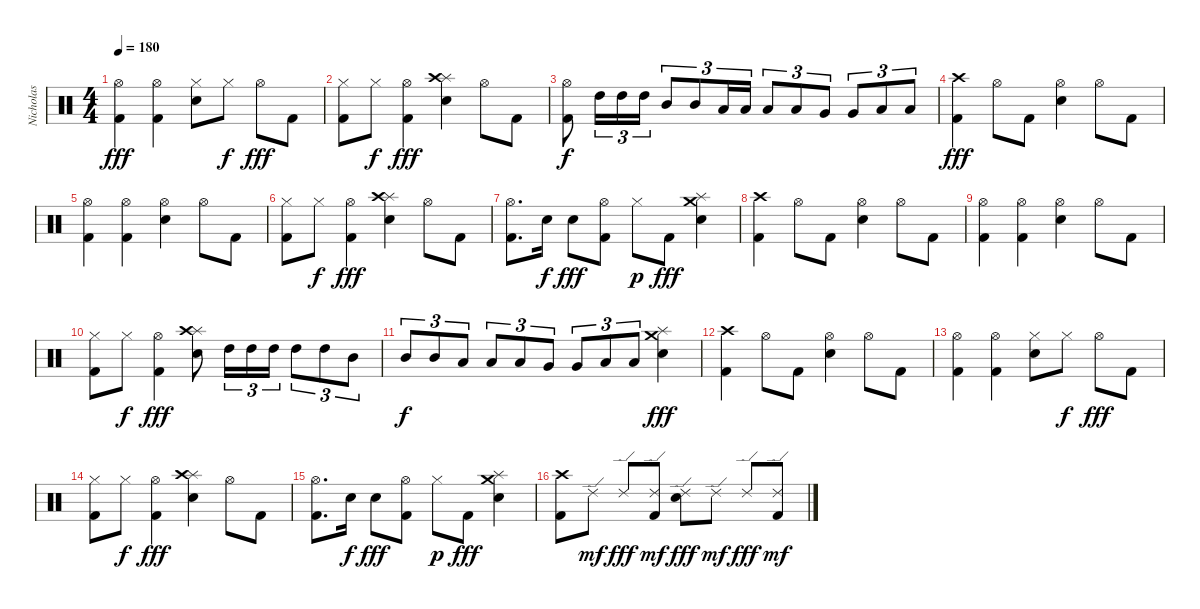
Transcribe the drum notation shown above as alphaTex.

\track ("Nicholas" "Nicholas") {instrument percussion}
\staff {score}
\articulation defaults
\ts (4 4)
\tempo 180
\clef neutral
\ks c
("Kick (hit) 2" "Hi-Hat (open)").4{dy fff} ("Kick (hit) 2" "Hi-Hat (open)").4 ("Electric Snare (hit)" "Hi-Hat (closed)").8 "Hi-Hat (closed)".8{dy f} "Hi-Hat (open)".8{dy fff} "Kick (hit) 2".8 |
("Kick (hit) 2" "Hi-Hat (closed)").8 "Hi-Hat (closed)".8{dy f} ("Kick (hit) 2" "Hi-Hat (open)").4{dy fff} ("Electric Snare (hit)" "Splash (hit)" "Crash high (hit)").4 "Hi-Hat (open)".8 "Kick (hit) 2".8 |
("Kick (hit) 2" "Hi-Hat (open)").8{dy f} "High Tom (hit)".16{tu (3 2)} "High Tom (hit)".16{tu (3 2)} "High Tom (hit)".16{tu (3 2)} "Mid Tom (hit)".8{tu (3 2)} "Mid Tom (hit)".8{tu (3 2)} "Low Tom (hit)".16{tu (3 2)} "Low Tom (hit)".16{tu (3 2)} "Low Tom (hit)".8{tu (3 2)} "Low Tom (hit)".8{tu (3 2)} "Very Low Tom (hit)".8{tu (3 2)} "Very Low Tom (hit)".8{tu (3 2)} "Low Floor Tom (hit)".8{tu (3 2)} "Low Floor Tom (hit)".8{tu (3 2)} |
("Kick (hit) 2" "Crash high (hit)").4{dy fff} "Hi-Hat (open)".8 "Kick (hit) 2".8 ("Electric Snare (hit)" "Hi-Hat (open)").4 "Hi-Hat (open)".8 "Kick (hit) 2".8 |
("Kick (hit) 2" "Hi-Hat (open)").4 ("Kick (hit) 2" "Hi-Hat (open)").4 ("Electric Snare (hit)" "Hi-Hat (open)").4 "Hi-Hat (open)".8 "Kick (hit) 2".8 |
("Kick (hit) 2" "Hi-Hat (closed)").8 "Hi-Hat (closed)".8{dy f} ("Kick (hit) 2" "Hi-Hat (open)").4{dy fff} ("Electric Snare (hit)" "Splash (hit)" "Crash high (hit)").4 "Hi-Hat (open)".8 "Kick (hit) 2".8 |
("Kick (hit) 2" "Hi-Hat (open)").8{d} "Electric Snare (hit)".16{dy f} "Electric Snare (hit)".8{dy fff} ("Kick (hit) 2" "Hi-Hat (open)").8 "Hi-Hat (closed)".8{dy p} "Kick (hit) 2".8{dy fff} ("Electric Snare (hit)" "Splash (hit)" "Crash medium (hit)").4 |
("Kick (hit) 2" "Crash high (hit)").4 "Hi-Hat (open)".8 "Kick (hit) 2".8 ("Electric Snare (hit)" "Hi-Hat (open)").4 "Hi-Hat (open)".8 "Kick (hit) 2".8 |
("Kick (hit) 2" "Hi-Hat (open)").4 ("Kick (hit) 2" "Hi-Hat (open)").4 ("Electric Snare (hit)" "Hi-Hat (open)").4 "Hi-Hat (open)".8 "Kick (hit) 2".8 |
("Kick (hit) 2" "Hi-Hat (closed)").8 "Hi-Hat (closed)".8{dy f} ("Kick (hit) 2" "Hi-Hat (open)").4{dy fff} ("Electric Snare (hit)" "Splash (hit)" "Crash high (hit)").8 "High Tom (hit)".16{tu (3 2)} "High Tom (hit)".16{tu (3 2)} "High Tom (hit)".16{tu (3 2)} "High Tom (hit)".8{tu (3 2)} "High Tom (hit)".8{tu (3 2)} "Mid Tom (hit)".8{tu (3 2)} |
"Mid Tom (hit)".8{tu (3 2) dy f} "Mid Tom (hit)".8{tu (3 2)} "Low Tom (hit)".8{tu (3 2)} "Low Tom (hit)".8{tu (3 2)} "Low Tom (hit)".8{tu (3 2)} "Very Low Tom (hit)".8{tu (3 2)} "Very Low Tom (hit)".8{tu (3 2)} "Low Floor Tom (hit)".8{tu (3 2)} "Low Floor Tom (hit)".8{tu (3 2)} ("Electric Snare (hit)" "Splash (hit)" "Crash medium (hit)").4{dy fff} |
("Kick (hit) 2" "Crash high (hit)").4 "Hi-Hat (open)".8 "Kick (hit) 2".8 ("Electric Snare (hit)" "Hi-Hat (open)").4 "Hi-Hat (open)".8 "Kick (hit) 2".8 |
("Kick (hit) 2" "Hi-Hat (open)").4 ("Kick (hit) 2" "Hi-Hat (open)").4 ("Electric Snare (hit)" "Hi-Hat (closed)").8 "Hi-Hat (closed)".8{dy f} "Hi-Hat (open)".8{dy fff} "Kick (hit) 2".8 |
("Kick (hit) 2" "Hi-Hat (closed)").8 "Hi-Hat (closed)".8{dy f} ("Kick (hit) 2" "Hi-Hat (open)").4{dy fff} ("Electric Snare (hit)" "Splash (hit)" "Crash high (hit)").4 "Hi-Hat (open)".8 "Kick (hit) 2".8 |
("Kick (hit) 2" "Hi-Hat (open)").8{d} "Electric Snare (hit)".16{dy f} "Electric Snare (hit)".8{dy fff} ("Kick (hit) 2" "Hi-Hat (open)").8 "Hi-Hat (closed)".8{dy p} "Kick (hit) 2".8{dy fff} ("Electric Snare (hit)" "Splash (hit)" "Crash medium (hit)").4 |
("Kick (hit) 2" "Crash high (hit)").8 "Ride (edge) 2".8{dy mf} "Ride (edge) 2".8{dy fff} ("Kick (hit) 2" "Ride (edge) 2").8{dy mf} ("Electric Snare (hit)" "Ride (edge) 2").8{dy fff} "Ride (edge) 2".8{dy mf} "Ride (edge) 2".8{dy fff} ("Kick (hit) 2" "Ride (edge) 2").8{dy mf}
